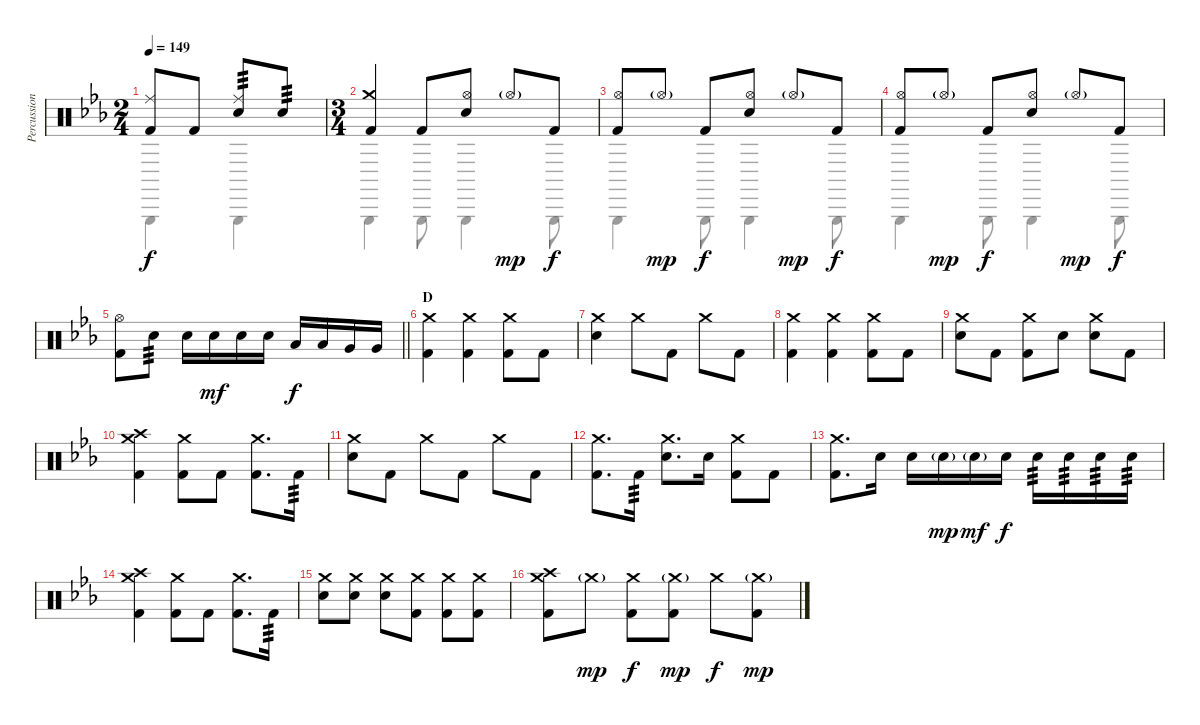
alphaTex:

\track ("Percussion" "Percussion") {instrument percussion}
\staff {score}
\articulation defaults
\voice
\ts (2 4)
\tempo 149
\clef neutral
\ks cminor
("Ride (middle)" "Kick (hit) 2").8{dy f} "Kick (hit) 2".8 ("Ride (middle)" "Snare (hit) 2").8{tp 3} "Snare (hit) 2".8{tp 3} |
\ts (3 4)
("Crash medium (hit)" "Kick (hit) 2").4 "Kick (hit) 2".8 ("Hi-Hat (open)" "Snare (hit) 2").8 "Hi-Hat (open)"{g}.8{dy mp} "Kick (hit) 2".8{dy f} |
("Hi-Hat (open)" "Kick (hit) 2").8 "Hi-Hat (open)"{g}.8{dy mp} "Kick (hit) 2".8{dy f} ("Hi-Hat (open)" "Snare (hit) 2").8 "Hi-Hat (open)"{g}.8{dy mp} "Kick (hit) 2".8{dy f} |
("Hi-Hat (open)" "Kick (hit) 2").8 "Hi-Hat (open)"{g}.8{dy mp} "Kick (hit) 2".8{dy f} ("Hi-Hat (open)" "Snare (hit) 2").8 "Hi-Hat (open)"{g}.8{dy mp} "Kick (hit) 2".8{dy f} |
\barLineRight lightlight
("Hi-Hat (open)" "Kick (hit) 2").8 "Snare (hit) 2".8{tp 3} "Snare (hit) 2".16 "Snare (hit) 2".16{dy mf} "Snare (hit) 2".16 "Snare (hit) 2".16 "Low Tom (hit)".16{dy f} "Low Tom (hit)".16 "Very Low Tom (hit)".16 "Very Low Tom (hit)".16 |
\section ("" "D")
("Crash medium (hit)" "Kick (hit) 2").4 ("Crash medium (hit)" "Kick (hit) 2").4 ("Crash medium (hit)" "Kick (hit) 2").8 "Kick (hit) 2".8 |
("Crash medium (hit)" "Snare (hit) 2").4 "Crash medium (hit)".8 "Kick (hit) 2".8 "Crash medium (hit)".8 "Kick (hit) 2".8 |
("Crash medium (hit)" "Kick (hit) 2").4 ("Crash medium (hit)" "Kick (hit) 2").4 ("Crash medium (hit)" "Kick (hit) 2").8 "Kick (hit) 2".8 |
("Crash medium (hit)" "Snare (hit) 2").8 "Kick (hit) 2".8 ("Crash medium (hit)" "Kick (hit) 2").8 "Snare (hit) 2".8 ("Crash medium (hit)" "Snare (hit) 2").8 "Kick (hit) 2".8 |
("Crash medium (hit)" "Crash high (hit)" "Kick (hit) 2").4 ("Crash medium (hit)" "Kick (hit) 2").8 "Kick (hit) 2".8 ("Crash medium (hit)" "Kick (hit) 2").8{d} "Kick (hit) 2".16{tp 3} |
("Crash medium (hit)" "Snare (hit) 2").8 "Kick (hit) 2".8 "Crash medium (hit)".8 "Kick (hit) 2".8 "Crash medium (hit)".8 "Kick (hit) 2".8 |
("Crash medium (hit)" "Kick (hit) 2").8{d} "Kick (hit) 2".16{tp 3} ("Crash medium (hit)" "Snare (hit) 2").8{d} "Snare (hit) 2".16 ("Crash medium (hit)" "Kick (hit) 2").8 "Kick (hit) 2".8 |
("Crash medium (hit)" "Kick (hit) 2").8{d} "Snare (hit) 2".16 "Snare (hit) 2".16 "Snare (hit) 2"{g}.16{dy mp} "Snare (hit) 2"{g}.16{dy mf} "Snare (hit) 2".16{dy f} "Snare (hit) 2".16{tp 3} "Snare (hit) 2".16{tp 3} "Snare (hit) 2".16{tp 3} "Snare (hit) 2".16{tp 3} |
("Crash medium (hit)" "Crash high (hit)" "Kick (hit) 2").4 ("Crash medium (hit)" "Kick (hit) 2").8 "Kick (hit) 2".8 ("Crash medium (hit)" "Kick (hit) 2").8{d} "Kick (hit) 2".16{tp 3} |
("Crash medium (hit)" "Snare (hit) 2").8 ("Crash medium (hit)" "Snare (hit) 2").8 ("Crash medium (hit)" "Snare (hit) 2").8 ("Crash medium (hit)" "Kick (hit) 2").8 ("Crash medium (hit)" "Kick (hit) 2").8 ("Crash medium (hit)" "Kick (hit) 2").8 |
("Crash medium (hit)" "Crash high (hit)" "Kick (hit) 2").8 "Crash medium (hit)"{g}.8{dy mp} ("Crash medium (hit)" "Kick (hit) 2").8{dy f} ("Crash medium (hit)"{g} "Kick (hit) 2").8{dy mp} "Crash medium (hit)".8{dy f} ("Crash medium (hit)"{g} "Kick (hit) 2").8{dy mp}
\voice
\clef neutral
\ottava regular
\simile none
\ks cminor "Triangle (hit)".4{dy f} "Triangle (hit)".4
|
"Triangle (hit)".4 "Triangle (hit)".8 "Triangle (hit)".4 "Triangle (hit)".8 |
"Triangle (hit)".4 "Triangle (hit)".8 "Triangle (hit)".4 "Triangle (hit)".8 |
"Triangle (hit)".4 "Triangle (hit)".8 "Triangle (hit)".4 "Triangle (hit)".8 |
\barLineRight lightlight
|
|
|
|
|
|
|
|
|
|
|
